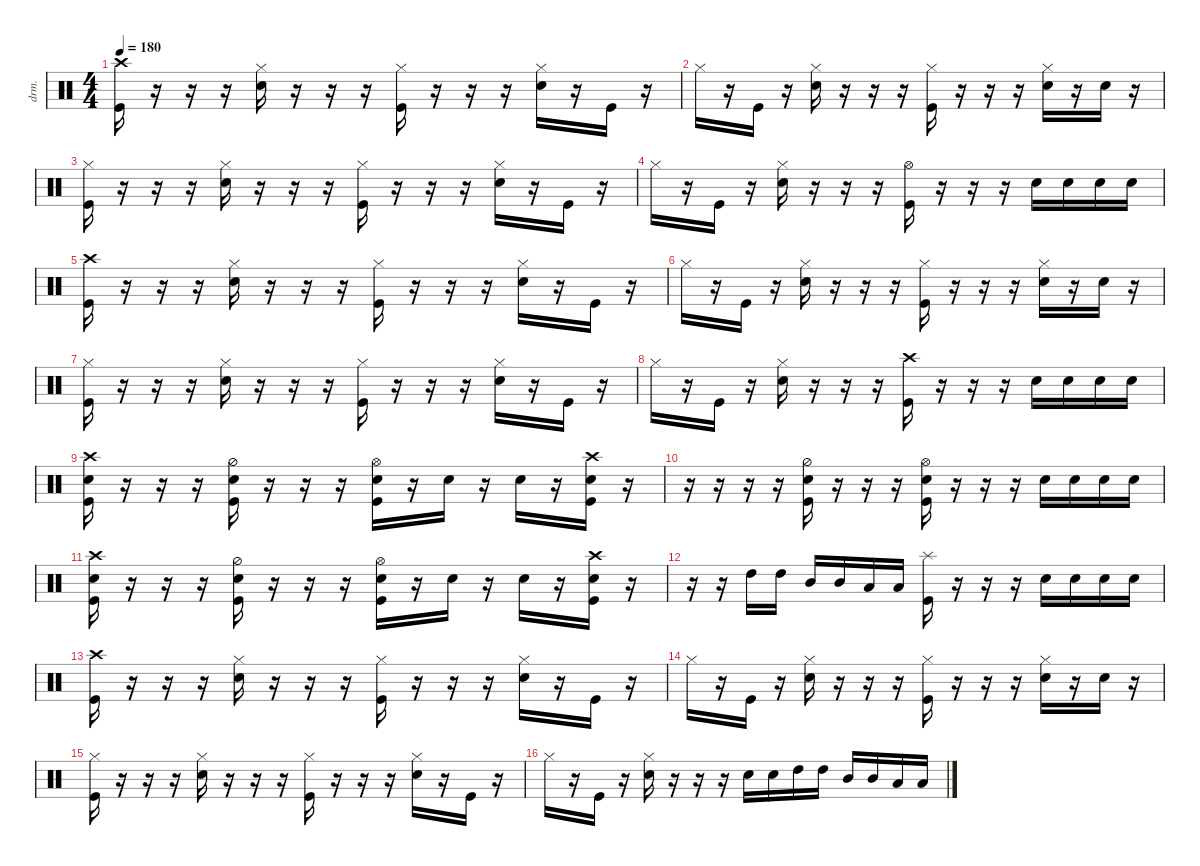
\defaultSystemsLayout 4
\hideDynamics
\bracketExtendMode nobrackets
\track ("Drumkit" "drm.") {instrument percussion}
\staff {score}
\articulation defaults
\ts (4 4)
\tempo 180
\clef neutral
\ks c
("Crash high (hit)" "Kick (hit)").16{dy mf beam Down} r.16{beam Down} r.16{beam Down} r.16{beam Down} ("Snare (hit) 2" "Hi-Hat (closed)").16{beam Down} r.16{beam Down} r.16{beam Down} r.16{beam Down} ("Kick (hit)" "Hi-Hat (closed)").16{beam Down} r.16{beam Down} r.16{beam Down} r.16{beam Down} ("Snare (hit) 2" "Hi-Hat (closed)").16{beam Down} r.16{beam Down} "Kick (hit)".16{beam Down} r.16{beam Down} |
"Hi-Hat (closed)".16{beam Down} r.16{beam Down} "Kick (hit)".16{beam Down} r.16{beam Down} ("Snare (hit) 2" "Hi-Hat (closed)").16{beam Down} r.16{beam Down} r.16{beam Down} r.16{beam Down} ("Kick (hit)" "Hi-Hat (closed)").16{beam Down} r.16{beam Down} r.16{beam Down} r.16{beam Down} ("Snare (hit) 2" "Hi-Hat (closed)").16{beam Down} r.16{beam Down} "Snare (hit) 2".16{beam Down} r.16{beam Down} |
("Kick (hit)" "Hi-Hat (closed)").16{beam Down} r.16{beam Down} r.16{beam Down} r.16{beam Down} ("Snare (hit) 2" "Hi-Hat (closed)").16{beam Down} r.16{beam Down} r.16{beam Down} r.16{beam Down} ("Kick (hit)" "Hi-Hat (closed)").16{beam Down} r.16{beam Down} r.16{beam Down} r.16{beam Down} ("Snare (hit) 2" "Hi-Hat (closed)").16{beam Down} r.16{beam Down} "Kick (hit)".16{beam Down} r.16{beam Down} |
"Hi-Hat (closed)".16{beam Down} r.16{beam Down} "Kick (hit)".16{beam Down} r.16{beam Down} ("Snare (hit) 2" "Hi-Hat (closed)").16{beam Down} r.16{beam Down} r.16{beam Down} r.16{beam Down} ("Kick (hit)" "Hi-Hat (open)").16{beam Down} r.16{beam Down} r.16{beam Down} r.16{beam Down} "Snare (hit) 2".16{beam Down} "Snare (hit) 2".16{beam Down} "Snare (hit) 2".16{beam Down} "Snare (hit) 2".16{beam Down} |
("Crash high (hit)" "Kick (hit)").16{beam Down} r.16{beam Down} r.16{beam Down} r.16{beam Down} ("Snare (hit) 2" "Hi-Hat (closed)").16{beam Down} r.16{beam Down} r.16{beam Down} r.16{beam Down} ("Kick (hit)" "Hi-Hat (closed)").16{beam Down} r.16{beam Down} r.16{beam Down} r.16{beam Down} ("Snare (hit) 2" "Hi-Hat (closed)").16{beam Down} r.16{beam Down} "Kick (hit)".16{beam Down} r.16{beam Down} |
"Hi-Hat (closed)".16{beam Down} r.16{beam Down} "Kick (hit)".16{beam Down} r.16{beam Down} ("Snare (hit) 2" "Hi-Hat (closed)").16{beam Down} r.16{beam Down} r.16{beam Down} r.16{beam Down} ("Kick (hit)" "Hi-Hat (closed)").16{beam Down} r.16{beam Down} r.16{beam Down} r.16{beam Down} ("Snare (hit) 2" "Hi-Hat (closed)").16{beam Down} r.16{beam Down} "Snare (hit) 2".16{beam Down} r.16{beam Down} |
("Kick (hit)" "Hi-Hat (closed)").16{beam Down} r.16{beam Down} r.16{beam Down} r.16{beam Down} ("Snare (hit) 2" "Hi-Hat (closed)").16{beam Down} r.16{beam Down} r.16{beam Down} r.16{beam Down} ("Kick (hit)" "Hi-Hat (closed)").16{beam Down} r.16{beam Down} r.16{beam Down} r.16{beam Down} ("Snare (hit) 2" "Hi-Hat (closed)").16{beam Down} r.16{beam Down} "Kick (hit)".16{beam Down} r.16{beam Down} |
"Hi-Hat (closed)".16{beam Down} r.16{beam Down} "Kick (hit)".16{beam Down} r.16{beam Down} ("Snare (hit) 2" "Hi-Hat (closed)").16{beam Down} r.16{beam Down} r.16{beam Down} r.16{beam Down} ("Kick (hit)" "Crash high (hit)").16{beam Down} r.16{beam Down} r.16{beam Down} r.16{beam Down} "Snare (hit) 2".16{beam Down} "Snare (hit) 2".16{beam Down} "Snare (hit) 2".16{beam Down} "Snare (hit) 2".16{beam Down} |
("Snare (hit) 2" "Crash high (hit)" "Kick (hit)").16{beam Down} r.16{beam Down} r.16{beam Down} r.16{beam Down} ("Snare (hit) 2" "Hi-Hat (half)" "Kick (hit)").16{beam Down} r.16{beam Down} r.16{beam Down} r.16{beam Down} ("Snare (hit) 2" "Kick (hit)" "Hi-Hat (open)").16{beam Down} r.16{beam Down} "Snare (hit) 2".16{beam Down} r.16{beam Down} "Snare (hit) 2".16{beam Down} r.16{beam Down} ("Snare (hit) 2" "Crash high (hit)" "Kick (hit)").16{beam Down} r.16{beam Down} |
r.16{beam Down} r.16{beam Down} r.16{beam Down} r.16{beam Down} ("Snare (hit) 2" "Hi-Hat (half)" "Kick (hit)").16{beam Down} r.16{beam Down} r.16{beam Down} r.16{beam Down} ("Snare (hit) 2" "Kick (hit)" "Hi-Hat (open)").16{beam Down} r.16{beam Down} r.16{beam Down} r.16{beam Down} "Snare (hit) 2".16{beam Down} "Snare (hit) 2".16{beam Down} "Snare (hit) 2".16{beam Down} "Snare (hit) 2".16{beam Down} |
("Snare (hit) 2" "Crash high (hit)" "Kick (hit)").16{beam Down} r.16{beam Down} r.16{beam Down} r.16{beam Down} ("Snare (hit) 2" "Hi-Hat (half)" "Kick (hit)").16{beam Down} r.16{beam Down} r.16{beam Down} r.16{beam Down} ("Snare (hit) 2" "Kick (hit)" "Hi-Hat (open)").16{beam Down} r.16{beam Down} "Snare (hit) 2".16{beam Down} r.16{beam Down} "Snare (hit) 2".16{beam Down} r.16{beam Down} ("Snare (hit) 2" "Crash high (hit)" "Kick (hit)").16{beam Down} r.16{beam Down} |
r.16{beam Down} r.16{beam Down} "High Tom (hit)".16{beam Down} "High Tom (hit)".16{beam Down} "Mid Tom (hit)".16{beam Up} "Mid Tom (hit)".16{beam Up} "Low Tom (hit)".16{beam Up} "Low Tom (hit)".16{beam Up} ("Kick (hit)" "Splash (hit)").16{beam Down} r.16{beam Down} r.16{beam Down} r.16{beam Down} "Snare (hit) 2".16{beam Down} "Snare (hit) 2".16{beam Down} "Snare (hit) 2".16{beam Down} "Snare (hit) 2".16{beam Down} |
("Crash high (hit)" "Kick (hit)").16{beam Down} r.16{beam Down} r.16{beam Down} r.16{beam Down} ("Snare (hit) 2" "Hi-Hat (closed)").16{beam Down} r.16{beam Down} r.16{beam Down} r.16{beam Down} ("Kick (hit)" "Hi-Hat (closed)").16{beam Down} r.16{beam Down} r.16{beam Down} r.16{beam Down} ("Snare (hit) 2" "Hi-Hat (closed)").16{beam Down} r.16{beam Down} "Kick (hit)".16{beam Down} r.16{beam Down} |
"Hi-Hat (closed)".16{beam Down} r.16{beam Down} "Kick (hit)".16{beam Down} r.16{beam Down} ("Snare (hit) 2" "Hi-Hat (closed)").16{beam Down} r.16{beam Down} r.16{beam Down} r.16{beam Down} ("Kick (hit)" "Hi-Hat (closed)").16{beam Down} r.16{beam Down} r.16{beam Down} r.16{beam Down} ("Snare (hit) 2" "Hi-Hat (closed)").16{beam Down} r.16{beam Down} "Snare (hit) 2".16{beam Down} r.16{beam Down} |
("Kick (hit)" "Hi-Hat (closed)").16{beam Down} r.16{beam Down} r.16{beam Down} r.16{beam Down} ("Snare (hit) 2" "Hi-Hat (closed)").16{beam Down} r.16{beam Down} r.16{beam Down} r.16{beam Down} ("Kick (hit)" "Hi-Hat (closed)").16{beam Down} r.16{beam Down} r.16{beam Down} r.16{beam Down} ("Snare (hit) 2" "Hi-Hat (closed)").16{beam Down} r.16{beam Down} "Kick (hit)".16{beam Down} r.16{beam Down} |
"Hi-Hat (closed)".16{beam Down} r.16{beam Down} "Kick (hit)".16{beam Down} r.16{beam Down} ("Snare (hit) 2" "Hi-Hat (closed)").16{beam Down} r.16{beam Down} r.16{beam Down} r.16{beam Down} "Snare (hit) 2".16{beam Down} "Snare (hit) 2".16{beam Down} "High Tom (hit)".16{beam Down} "High Tom (hit)".16{beam Down} "Mid Tom (hit)".16{beam Up} "Mid Tom (hit)".16{beam Up} "Low Tom (hit)".16{beam Up} "Low Tom (hit)".16{beam Up}
